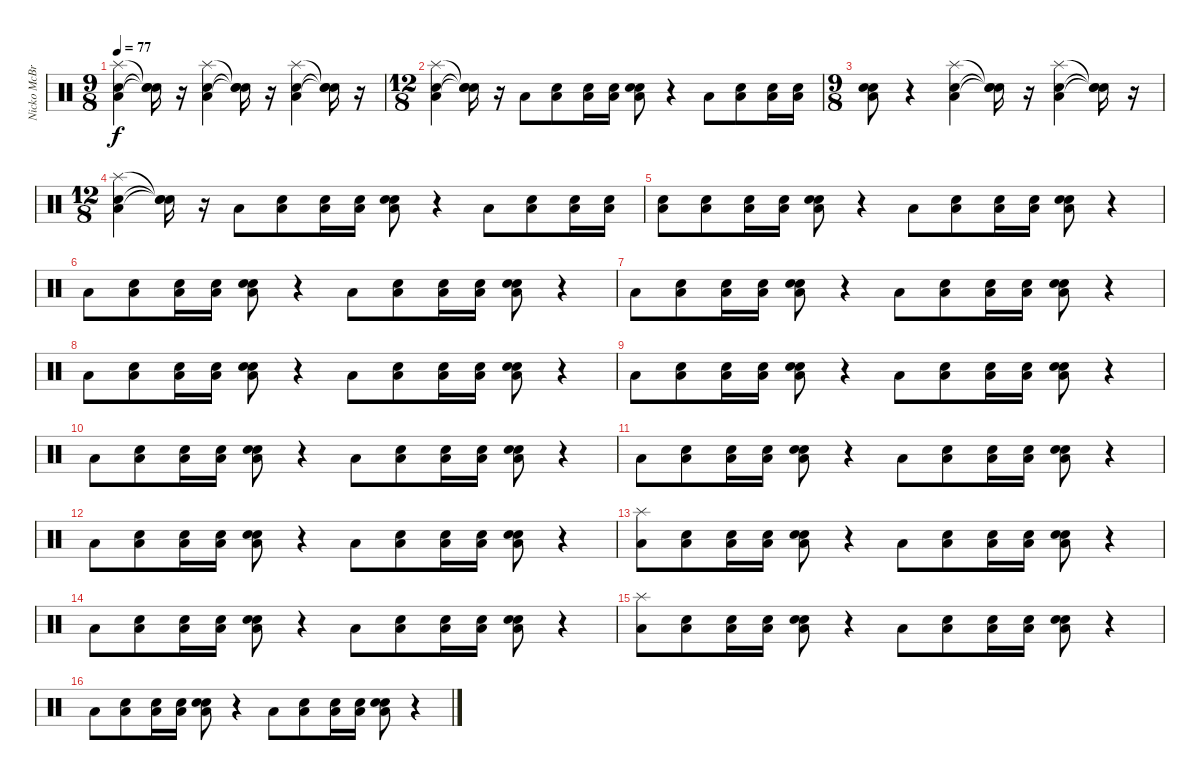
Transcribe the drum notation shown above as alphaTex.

\track ("Nicko McBrain" "Nicko McBr") {instrument percussion}
\staff {score}
\articulation defaults
\ts (9 8)
\tempo 77
\clef neutral
\ks c
("Electric Snare (hit)" "Low Floor Tom (hit)" "Splash (hit)").4{dy f} ("Snare (hit)"{t} "Snare (hit)"{t} "Snare (hit)"{t}).16 r.16 ("Electric Snare (hit)" "Low Floor Tom (hit)" "Splash (hit)").4 ("Snare (hit)"{t} "Snare (hit)"{t} "Snare (hit)"{t}).16 r.16 ("Electric Snare (hit)" "Low Floor Tom (hit)" "Splash (hit)").4 ("Snare (hit)"{t} "Snare (hit)"{t} "Snare (hit)"{t}).16 r.16 |
\ts (12 8)
("Electric Snare (hit)" "Low Floor Tom (hit)" "Splash (hit)").4 ("Snare (hit)"{t} "Snare (hit)"{t} "Snare (hit)"{t}).16 r.16 "Low Floor Tom (hit)".8 ("Snare (hit)" "Low Floor Tom (hit)").8 ("Snare (hit)" "Low Floor Tom (hit)").16 ("Snare (hit)" "Low Floor Tom (hit)").16 ("Snare (hit)" "Electric Snare (hit)" "Low Floor Tom (hit)").8 r.4 "Low Floor Tom (hit)".8 ("Snare (hit)" "Low Floor Tom (hit)").8 ("Snare (hit)" "Low Floor Tom (hit)").16 ("Snare (hit)" "Low Floor Tom (hit)").16 |
\ts (9 8)
("Snare (hit)" "Electric Snare (hit)" "Low Floor Tom (hit)").8 r.4 ("Electric Snare (hit)" "Low Floor Tom (hit)" "Splash (hit)").4 ("Snare (hit)"{t} "Snare (hit)"{t} "Snare (hit)"{t}).16 r.16 ("Electric Snare (hit)" "Low Floor Tom (hit)" "Splash (hit)").4 ("Snare (hit)"{t} "Snare (hit)"{t} "Snare (hit)"{t}).16 r.16 |
\ts (12 8)
("Electric Snare (hit)" "Low Floor Tom (hit)" "Splash (hit)").4 ("Snare (hit)"{t} "Snare (hit)"{t} "Snare (hit)"{t}).16 r.16 "Low Floor Tom (hit)".8 ("Snare (hit)" "Low Floor Tom (hit)").8 ("Snare (hit)" "Low Floor Tom (hit)").16 ("Snare (hit)" "Low Floor Tom (hit)").16 ("Snare (hit)" "Electric Snare (hit)" "Low Floor Tom (hit)").8 r.4 "Low Floor Tom (hit)".8 ("Snare (hit)" "Low Floor Tom (hit)").8 ("Snare (hit)" "Low Floor Tom (hit)").16 ("Snare (hit)" "Low Floor Tom (hit)").16 |
("Snare (hit)" "Low Floor Tom (hit)").8 ("Snare (hit)" "Low Floor Tom (hit)").8 ("Snare (hit)" "Low Floor Tom (hit)").16 ("Snare (hit)" "Low Floor Tom (hit)").16 ("Snare (hit)" "Electric Snare (hit)" "Low Floor Tom (hit)").8 r.4 "Low Floor Tom (hit)".8 ("Snare (hit)" "Low Floor Tom (hit)").8 ("Snare (hit)" "Low Floor Tom (hit)").16 ("Snare (hit)" "Low Floor Tom (hit)").16 ("Snare (hit)" "Electric Snare (hit)" "Low Floor Tom (hit)").8 r.4 |
"Low Floor Tom (hit)".8 ("Snare (hit)" "Low Floor Tom (hit)").8 ("Snare (hit)" "Low Floor Tom (hit)").16 ("Snare (hit)" "Low Floor Tom (hit)").16 ("Snare (hit)" "Electric Snare (hit)" "Low Floor Tom (hit)").8 r.4 "Low Floor Tom (hit)".8 ("Snare (hit)" "Low Floor Tom (hit)").8 ("Snare (hit)" "Low Floor Tom (hit)").16 ("Snare (hit)" "Low Floor Tom (hit)").16 ("Snare (hit)" "Electric Snare (hit)" "Low Floor Tom (hit)").8 r.4 |
"Low Floor Tom (hit)".8 ("Snare (hit)" "Low Floor Tom (hit)").8 ("Snare (hit)" "Low Floor Tom (hit)").16 ("Snare (hit)" "Low Floor Tom (hit)").16 ("Snare (hit)" "Electric Snare (hit)" "Low Floor Tom (hit)").8 r.4 "Low Floor Tom (hit)".8 ("Snare (hit)" "Low Floor Tom (hit)").8 ("Snare (hit)" "Low Floor Tom (hit)").16 ("Snare (hit)" "Low Floor Tom (hit)").16 ("Snare (hit)" "Electric Snare (hit)" "Low Floor Tom (hit)").8 r.4 |
"Low Floor Tom (hit)".8 ("Snare (hit)" "Low Floor Tom (hit)").8 ("Snare (hit)" "Low Floor Tom (hit)").16 ("Snare (hit)" "Low Floor Tom (hit)").16 ("Snare (hit)" "Electric Snare (hit)" "Low Floor Tom (hit)").8 r.4 "Low Floor Tom (hit)".8 ("Snare (hit)" "Low Floor Tom (hit)").8 ("Snare (hit)" "Low Floor Tom (hit)").16 ("Snare (hit)" "Low Floor Tom (hit)").16 ("Snare (hit)" "Electric Snare (hit)" "Low Floor Tom (hit)").8 r.4 |
"Low Floor Tom (hit)".8 ("Snare (hit)" "Low Floor Tom (hit)").8 ("Snare (hit)" "Low Floor Tom (hit)").16 ("Snare (hit)" "Low Floor Tom (hit)").16 ("Snare (hit)" "Electric Snare (hit)" "Low Floor Tom (hit)").8 r.4 "Low Floor Tom (hit)".8 ("Snare (hit)" "Low Floor Tom (hit)").8 ("Snare (hit)" "Low Floor Tom (hit)").16 ("Snare (hit)" "Low Floor Tom (hit)").16 ("Snare (hit)" "Electric Snare (hit)" "Low Floor Tom (hit)").8 r.4 |
"Low Floor Tom (hit)".8 ("Snare (hit)" "Low Floor Tom (hit)").8 ("Snare (hit)" "Low Floor Tom (hit)").16 ("Snare (hit)" "Low Floor Tom (hit)").16 ("Snare (hit)" "Electric Snare (hit)" "Low Floor Tom (hit)").8 r.4 "Low Floor Tom (hit)".8 ("Snare (hit)" "Low Floor Tom (hit)").8 ("Snare (hit)" "Low Floor Tom (hit)").16 ("Snare (hit)" "Low Floor Tom (hit)").16 ("Snare (hit)" "Electric Snare (hit)" "Low Floor Tom (hit)").8 r.4 |
"Low Floor Tom (hit)".8 ("Snare (hit)" "Low Floor Tom (hit)").8 ("Snare (hit)" "Low Floor Tom (hit)").16 ("Snare (hit)" "Low Floor Tom (hit)").16 ("Snare (hit)" "Electric Snare (hit)" "Low Floor Tom (hit)").8 r.4 "Low Floor Tom (hit)".8 ("Snare (hit)" "Low Floor Tom (hit)").8 ("Snare (hit)" "Low Floor Tom (hit)").16 ("Snare (hit)" "Low Floor Tom (hit)").16 ("Snare (hit)" "Electric Snare (hit)" "Low Floor Tom (hit)").8 r.4 |
"Low Floor Tom (hit)".8 ("Snare (hit)" "Low Floor Tom (hit)").8 ("Snare (hit)" "Low Floor Tom (hit)").16 ("Snare (hit)" "Low Floor Tom (hit)").16 ("Snare (hit)" "Electric Snare (hit)" "Low Floor Tom (hit)").8 r.4 "Low Floor Tom (hit)".8 ("Snare (hit)" "Low Floor Tom (hit)").8 ("Snare (hit)" "Low Floor Tom (hit)").16 ("Snare (hit)" "Low Floor Tom (hit)").16 ("Snare (hit)" "Electric Snare (hit)" "Low Floor Tom (hit)").8 r.4 |
("Low Floor Tom (hit)" "Splash (hit)").8 ("Snare (hit)" "Low Floor Tom (hit)").8 ("Snare (hit)" "Low Floor Tom (hit)").16 ("Snare (hit)" "Low Floor Tom (hit)").16 ("Snare (hit)" "Electric Snare (hit)" "Low Floor Tom (hit)").8 r.4 "Low Floor Tom (hit)".8 ("Snare (hit)" "Low Floor Tom (hit)").8 ("Snare (hit)" "Low Floor Tom (hit)").16 ("Snare (hit)" "Low Floor Tom (hit)").16 ("Snare (hit)" "Electric Snare (hit)" "Low Floor Tom (hit)").8 r.4 |
"Low Floor Tom (hit)".8 ("Snare (hit)" "Low Floor Tom (hit)").8 ("Snare (hit)" "Low Floor Tom (hit)").16 ("Snare (hit)" "Low Floor Tom (hit)").16 ("Snare (hit)" "Electric Snare (hit)" "Low Floor Tom (hit)").8 r.4 "Low Floor Tom (hit)".8 ("Snare (hit)" "Low Floor Tom (hit)").8 ("Snare (hit)" "Low Floor Tom (hit)").16 ("Snare (hit)" "Low Floor Tom (hit)").16 ("Snare (hit)" "Electric Snare (hit)" "Low Floor Tom (hit)").8 r.4 |
("Low Floor Tom (hit)" "Splash (hit)").8 ("Snare (hit)" "Low Floor Tom (hit)").8 ("Snare (hit)" "Low Floor Tom (hit)").16 ("Snare (hit)" "Low Floor Tom (hit)").16 ("Snare (hit)" "Electric Snare (hit)" "Low Floor Tom (hit)").8 r.4 "Low Floor Tom (hit)".8 ("Snare (hit)" "Low Floor Tom (hit)").8 ("Snare (hit)" "Low Floor Tom (hit)").16 ("Snare (hit)" "Low Floor Tom (hit)").16 ("Snare (hit)" "Electric Snare (hit)" "Low Floor Tom (hit)").8 r.4 |
"Low Floor Tom (hit)".8 ("Snare (hit)" "Low Floor Tom (hit)").8 ("Snare (hit)" "Low Floor Tom (hit)").16 ("Snare (hit)" "Low Floor Tom (hit)").16 ("Snare (hit)" "Electric Snare (hit)" "Low Floor Tom (hit)").8 r.4 "Low Floor Tom (hit)".8 ("Snare (hit)" "Low Floor Tom (hit)").8 ("Snare (hit)" "Low Floor Tom (hit)").16 ("Snare (hit)" "Low Floor Tom (hit)").16 ("Snare (hit)" "Electric Snare (hit)" "Low Floor Tom (hit)").8 r.4
